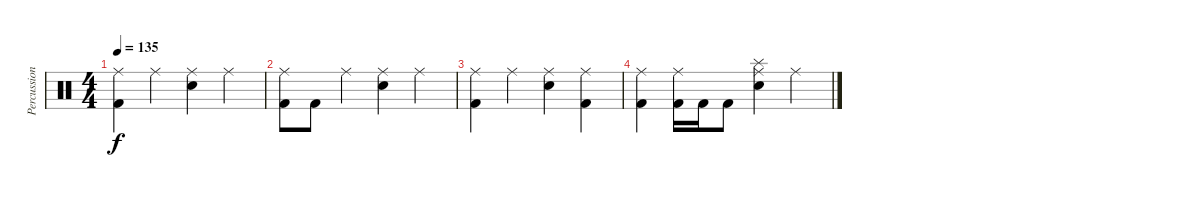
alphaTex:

\track ("Percussion" "Percussion") {instrument percussion}
\staff {score}
\articulation defaults
\ts (4 4)
\tempo 135
\clef neutral
\ks c
("Kick (hit) 2" "Ride (middle)").4{dy f} "Ride (middle)".4 ("Electric Snare (hit)" "Ride (middle)").4 "Ride (middle)".4 |
("Kick (hit) 2" "Ride (middle)").8 "Kick (hit) 2".8 "Ride (middle)".4 ("Electric Snare (hit)" "Ride (middle)").4 "Ride (middle)".4 |
("Kick (hit) 2" "Ride (middle)").4 "Ride (middle)".4 ("Electric Snare (hit)" "Ride (middle)").4 ("Kick (hit) 2" "Ride (middle)").4 |
("Kick (hit) 2" "Ride (middle)").4 ("Kick (hit) 2" "Ride (middle)").16 "Kick (hit) 2".16 "Kick (hit) 2".8 ("Electric Snare (hit)" "Ride (middle)" "Splash (hit)").4 "Ride (middle)".4
